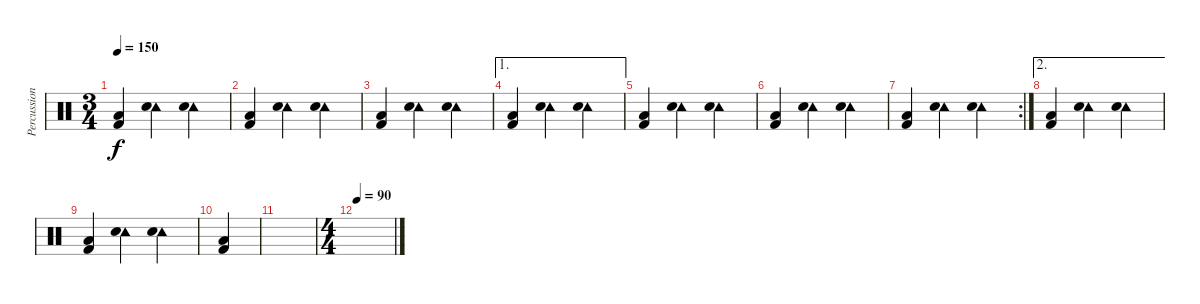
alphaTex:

\track ("Percussion" "Percussion") {instrument percussion}
\staff {score}
\articulation defaults
\ts (3 4)
\tempo 150
\clef neutral
\ks c
("Low Floor Tom (hit)" "Kick (hit) 2").4{dy f} ("Tambourine (hit)" "Snare (hit) 2").4 ("Tambourine (hit)" "Snare (hit) 2").4 |
("Low Floor Tom (hit)" "Kick (hit) 2").4 ("Tambourine (hit)" "Snare (hit) 2").4 ("Tambourine (hit)" "Snare (hit) 2").4 |
("Low Floor Tom (hit)" "Kick (hit) 2").4 ("Tambourine (hit)" "Snare (hit) 2").4 ("Tambourine (hit)" "Snare (hit) 2").4 |
\ae 1
("Low Floor Tom (hit)" "Kick (hit) 2").4 ("Tambourine (hit)" "Snare (hit) 2").4 ("Tambourine (hit)" "Snare (hit) 2").4 |
("Low Floor Tom (hit)" "Kick (hit) 2").4 ("Tambourine (hit)" "Snare (hit) 2").4 ("Tambourine (hit)" "Snare (hit) 2").4 |
("Low Floor Tom (hit)" "Kick (hit) 2").4 ("Tambourine (hit)" "Snare (hit) 2").4 ("Tambourine (hit)" "Snare (hit) 2").4 |
\rc 2
("Low Floor Tom (hit)" "Kick (hit) 2").4 ("Tambourine (hit)" "Snare (hit) 2").4 ("Tambourine (hit)" "Snare (hit) 2").4 |
\ae 2
("Low Floor Tom (hit)" "Kick (hit) 2").4 ("Tambourine (hit)" "Snare (hit) 2").4 ("Tambourine (hit)" "Snare (hit) 2").4 |
("Low Floor Tom (hit)" "Kick (hit) 2").4 ("Tambourine (hit)" "Snare (hit) 2").4 ("Tambourine (hit)" "Snare (hit) 2").4 |
("Low Floor Tom (hit)" "Kick (hit) 2").4 |
|
\ts (4 4)
\tempo 90
